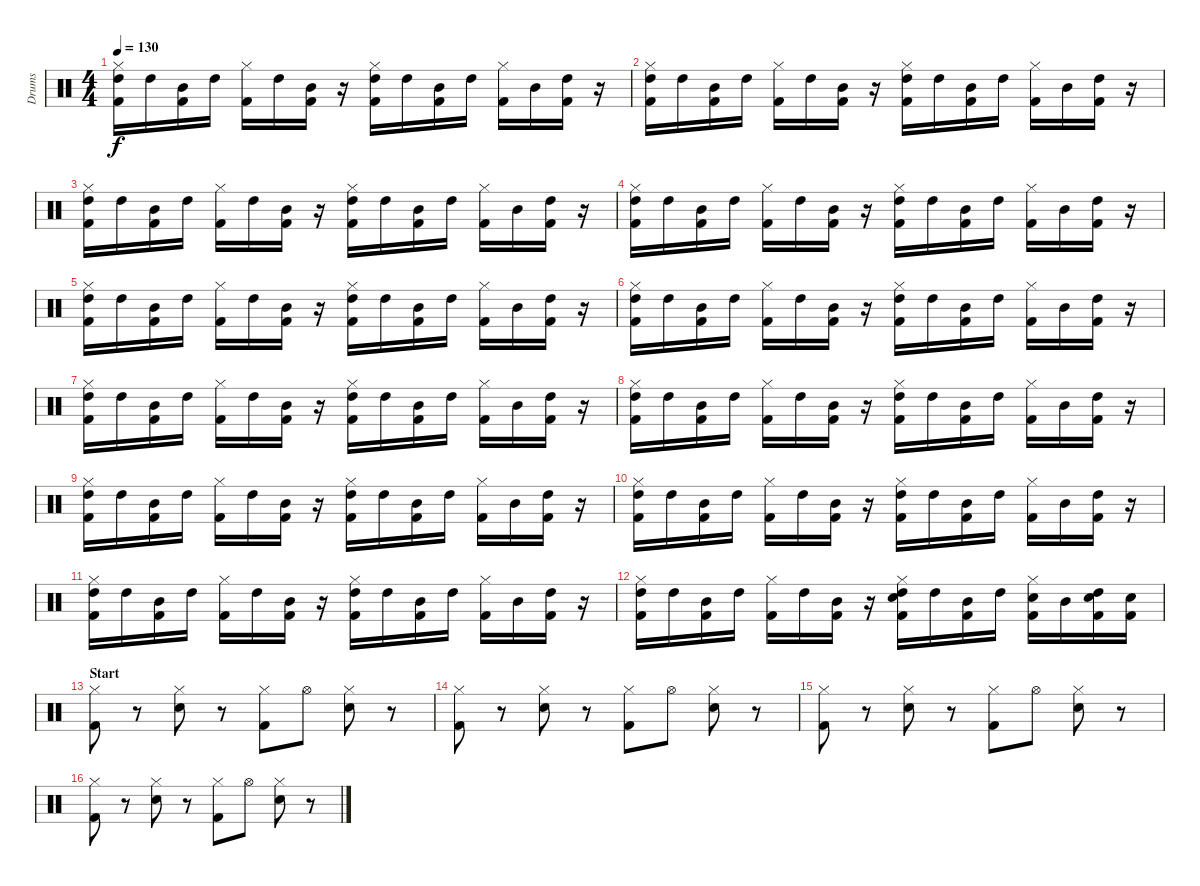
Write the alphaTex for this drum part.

\track ("Drums" "Drums") {instrument percussion}
\staff {score}
\articulation defaults
\ts (4 4)
\tempo 130
\clef neutral
\ks c
("Hi-Hat (closed)" "Kick (hit) 2" "High Tom (hit)").16{dy f} "High Tom (hit)".16 ("Kick (hit) 2" "Mid Tom (hit)").16 "High Tom (hit)".16 ("Hi-Hat (closed)" "Kick (hit) 2").16 "High Tom (hit)".16 ("Kick (hit) 2" "Mid Tom (hit)").16 r.16 ("Hi-Hat (closed)" "Kick (hit) 2" "High Tom (hit)").16 "High Tom (hit)".16 ("Kick (hit) 2" "Mid Tom (hit)").16 "High Tom (hit)".16 ("Hi-Hat (closed)" "Kick (hit) 2").16 "Mid Tom (hit)".16 ("Kick (hit) 2" "High Tom (hit)").16 r.16 |
("Hi-Hat (closed)" "Kick (hit) 2" "High Tom (hit)").16 "High Tom (hit)".16 ("Kick (hit) 2" "Mid Tom (hit)").16 "High Tom (hit)".16 ("Hi-Hat (closed)" "Kick (hit) 2").16 "High Tom (hit)".16 ("Kick (hit) 2" "Mid Tom (hit)").16 r.16 ("Hi-Hat (closed)" "Kick (hit) 2" "High Tom (hit)").16 "High Tom (hit)".16 ("Kick (hit) 2" "Mid Tom (hit)").16 "High Tom (hit)".16 ("Hi-Hat (closed)" "Kick (hit) 2").16 "Mid Tom (hit)".16 ("Kick (hit) 2" "High Tom (hit)").16 r.16 |
("Hi-Hat (closed)" "Kick (hit) 2" "High Tom (hit)").16 "High Tom (hit)".16 ("Kick (hit) 2" "Mid Tom (hit)").16 "High Tom (hit)".16 ("Hi-Hat (closed)" "Kick (hit) 2").16 "High Tom (hit)".16 ("Kick (hit) 2" "Mid Tom (hit)").16 r.16 ("Hi-Hat (closed)" "Kick (hit) 2" "High Tom (hit)").16 "High Tom (hit)".16 ("Kick (hit) 2" "Mid Tom (hit)").16 "High Tom (hit)".16 ("Hi-Hat (closed)" "Kick (hit) 2").16 "Mid Tom (hit)".16 ("Kick (hit) 2" "High Tom (hit)").16 r.16 |
("Hi-Hat (closed)" "Kick (hit) 2" "High Tom (hit)").16 "High Tom (hit)".16 ("Kick (hit) 2" "Mid Tom (hit)").16 "High Tom (hit)".16 ("Hi-Hat (closed)" "Kick (hit) 2").16 "High Tom (hit)".16 ("Kick (hit) 2" "Mid Tom (hit)").16 r.16 ("Hi-Hat (closed)" "Kick (hit) 2" "High Tom (hit)").16 "High Tom (hit)".16 ("Kick (hit) 2" "Mid Tom (hit)").16 "High Tom (hit)".16 ("Hi-Hat (closed)" "Kick (hit) 2").16 "Mid Tom (hit)".16 ("Kick (hit) 2" "High Tom (hit)").16 r.16 |
("Hi-Hat (closed)" "Kick (hit) 2" "High Tom (hit)").16 "High Tom (hit)".16 ("Kick (hit) 2" "Mid Tom (hit)").16 "High Tom (hit)".16 ("Hi-Hat (closed)" "Kick (hit) 2").16 "High Tom (hit)".16 ("Kick (hit) 2" "Mid Tom (hit)").16 r.16 ("Hi-Hat (closed)" "Kick (hit) 2" "High Tom (hit)").16 "High Tom (hit)".16 ("Kick (hit) 2" "Mid Tom (hit)").16 "High Tom (hit)".16 ("Hi-Hat (closed)" "Kick (hit) 2").16 "Mid Tom (hit)".16 ("Kick (hit) 2" "High Tom (hit)").16 r.16 |
("Hi-Hat (closed)" "Kick (hit) 2" "High Tom (hit)").16 "High Tom (hit)".16 ("Kick (hit) 2" "Mid Tom (hit)").16 "High Tom (hit)".16 ("Hi-Hat (closed)" "Kick (hit) 2").16 "High Tom (hit)".16 ("Kick (hit) 2" "Mid Tom (hit)").16 r.16 ("Hi-Hat (closed)" "Kick (hit) 2" "High Tom (hit)").16 "High Tom (hit)".16 ("Kick (hit) 2" "Mid Tom (hit)").16 "High Tom (hit)".16 ("Hi-Hat (closed)" "Kick (hit) 2").16 "Mid Tom (hit)".16 ("Kick (hit) 2" "High Tom (hit)").16 r.16 |
("Hi-Hat (closed)" "Kick (hit) 2" "High Tom (hit)").16 "High Tom (hit)".16 ("Kick (hit) 2" "Mid Tom (hit)").16 "High Tom (hit)".16 ("Hi-Hat (closed)" "Kick (hit) 2").16 "High Tom (hit)".16 ("Kick (hit) 2" "Mid Tom (hit)").16 r.16 ("Hi-Hat (closed)" "Kick (hit) 2" "High Tom (hit)").16 "High Tom (hit)".16 ("Kick (hit) 2" "Mid Tom (hit)").16 "High Tom (hit)".16 ("Hi-Hat (closed)" "Kick (hit) 2").16 "Mid Tom (hit)".16 ("Kick (hit) 2" "High Tom (hit)").16 r.16 |
("Hi-Hat (closed)" "Kick (hit) 2" "High Tom (hit)").16 "High Tom (hit)".16 ("Kick (hit) 2" "Mid Tom (hit)").16 "High Tom (hit)".16 ("Hi-Hat (closed)" "Kick (hit) 2").16 "High Tom (hit)".16 ("Kick (hit) 2" "Mid Tom (hit)").16 r.16 ("Hi-Hat (closed)" "Kick (hit) 2" "High Tom (hit)").16 "High Tom (hit)".16 ("Kick (hit) 2" "Mid Tom (hit)").16 "High Tom (hit)".16 ("Hi-Hat (closed)" "Kick (hit) 2").16 "Mid Tom (hit)".16 ("Kick (hit) 2" "High Tom (hit)").16 r.16 |
("Hi-Hat (closed)" "Kick (hit) 2" "High Tom (hit)").16 "High Tom (hit)".16 ("Kick (hit) 2" "Mid Tom (hit)").16 "High Tom (hit)".16 ("Hi-Hat (closed)" "Kick (hit) 2").16 "High Tom (hit)".16 ("Kick (hit) 2" "Mid Tom (hit)").16 r.16 ("Hi-Hat (closed)" "Kick (hit) 2" "High Tom (hit)").16 "High Tom (hit)".16 ("Kick (hit) 2" "Mid Tom (hit)").16 "High Tom (hit)".16 ("Hi-Hat (closed)" "Kick (hit) 2").16 "Mid Tom (hit)".16 ("Kick (hit) 2" "High Tom (hit)").16 r.16 |
("Hi-Hat (closed)" "Kick (hit) 2" "High Tom (hit)").16 "High Tom (hit)".16 ("Kick (hit) 2" "Mid Tom (hit)").16 "High Tom (hit)".16 ("Hi-Hat (closed)" "Kick (hit) 2").16 "High Tom (hit)".16 ("Kick (hit) 2" "Mid Tom (hit)").16 r.16 ("Hi-Hat (closed)" "Kick (hit) 2" "High Tom (hit)").16 "High Tom (hit)".16 ("Kick (hit) 2" "Mid Tom (hit)").16 "High Tom (hit)".16 ("Hi-Hat (closed)" "Kick (hit) 2").16 "Mid Tom (hit)".16 ("Kick (hit) 2" "High Tom (hit)").16 r.16 |
("Hi-Hat (closed)" "Kick (hit) 2" "High Tom (hit)").16 "High Tom (hit)".16 ("Kick (hit) 2" "Mid Tom (hit)").16 "High Tom (hit)".16 ("Hi-Hat (closed)" "Kick (hit) 2").16 "High Tom (hit)".16 ("Kick (hit) 2" "Mid Tom (hit)").16 r.16 ("Hi-Hat (closed)" "Kick (hit) 2" "High Tom (hit)").16 "High Tom (hit)".16 ("Kick (hit) 2" "Mid Tom (hit)").16 "High Tom (hit)".16 ("Hi-Hat (closed)" "Kick (hit) 2").16 "Mid Tom (hit)".16 ("Kick (hit) 2" "High Tom (hit)").16 r.16 |
("Hi-Hat (closed)" "Kick (hit) 2" "High Tom (hit)").16 "High Tom (hit)".16 ("Kick (hit) 2" "Mid Tom (hit)").16 "High Tom (hit)".16 ("Hi-Hat (closed)" "Kick (hit) 2").16 "High Tom (hit)".16 ("Kick (hit) 2" "Mid Tom (hit)").16 r.16 ("Hi-Hat (closed)" "Kick (hit) 2" "High Tom (hit)" "Snare (hit) 2").16 "High Tom (hit)".16 ("Kick (hit) 2" "Mid Tom (hit)").16 "High Tom (hit)".16 ("Hi-Hat (closed)" "Kick (hit) 2" "Snare (hit) 2").16 "Mid Tom (hit)".16 ("Kick (hit) 2" "High Tom (hit)" "Snare (hit) 2").16 ("Kick (hit) 2" "Snare (hit) 2").16 |
\section ("" "Start")
("Kick (hit) 2" "Hi-Hat (closed)").8 r.8 ("Snare (hit) 2" "Hi-Hat (closed)").8 r.8 ("Kick (hit) 2" "Hi-Hat (closed)").8 "Hi-Hat (open)".8 ("Snare (hit) 2" "Hi-Hat (closed)").8 r.8 |
("Kick (hit) 2" "Hi-Hat (closed)").8 r.8 ("Snare (hit) 2" "Hi-Hat (closed)").8 r.8 ("Kick (hit) 2" "Hi-Hat (closed)").8 "Hi-Hat (open)".8 ("Snare (hit) 2" "Hi-Hat (closed)").8 r.8 |
("Kick (hit) 2" "Hi-Hat (closed)").8 r.8 ("Snare (hit) 2" "Hi-Hat (closed)").8 r.8 ("Kick (hit) 2" "Hi-Hat (closed)").8 "Hi-Hat (open)".8 ("Snare (hit) 2" "Hi-Hat (closed)").8 r.8 |
("Kick (hit) 2" "Hi-Hat (closed)").8 r.8 ("Snare (hit) 2" "Hi-Hat (closed)").8 r.8 ("Kick (hit) 2" "Hi-Hat (closed)").8 "Hi-Hat (open)".8 ("Snare (hit) 2" "Hi-Hat (closed)").8 r.8
